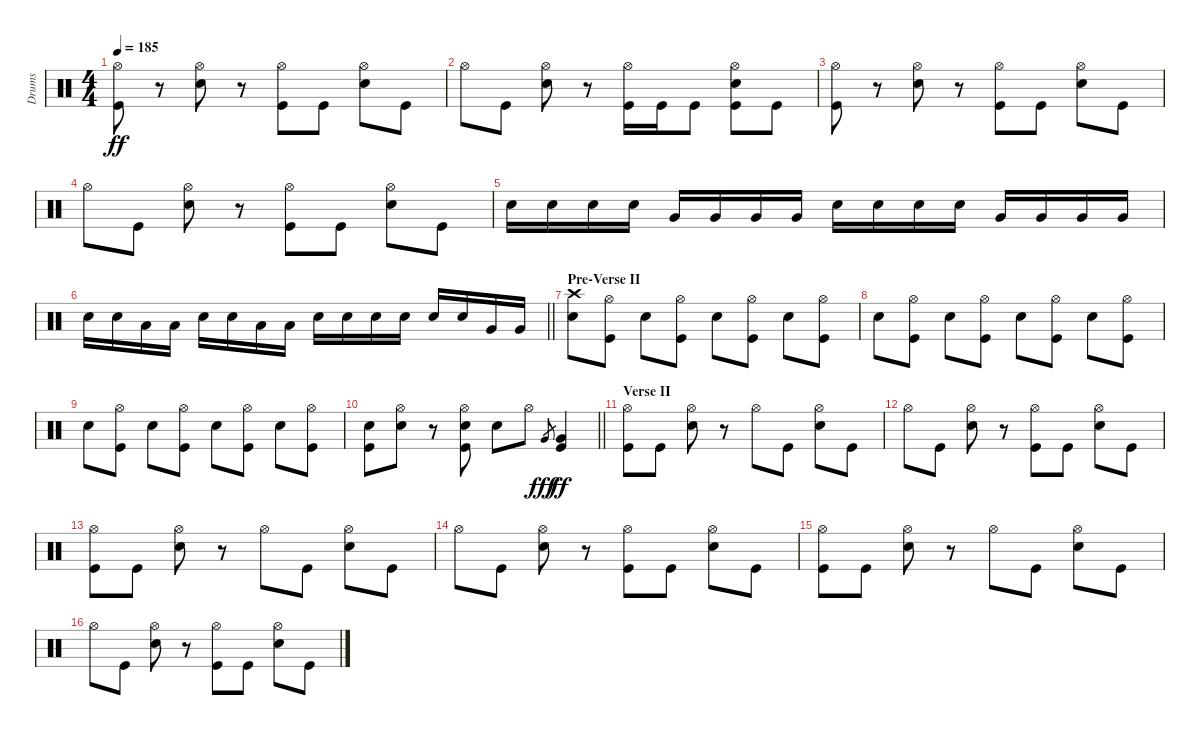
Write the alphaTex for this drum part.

\track ("Drums" "Drums") {instrument percussion}
\staff {score}
\articulation defaults
\ts (4 4)
\tempo 185
\clef neutral
\ks c
("Hi-Hat (open)" "Kick (hit)").8{dy ff} r.8 ("Hi-Hat (open)" "Electric Snare (hit)").8 r.8 ("Hi-Hat (open)" "Kick (hit)").8 "Kick (hit)".8 ("Hi-Hat (open)" "Electric Snare (hit)").8 "Kick (hit)".8 |
"Hi-Hat (open)".8 "Kick (hit)".8 ("Hi-Hat (open)" "Electric Snare (hit)").8 r.8 ("Hi-Hat (open)" "Kick (hit)").16 "Kick (hit)".16 "Kick (hit)".8 ("Hi-Hat (open)" "Electric Snare (hit)" "Kick (hit)").8 "Kick (hit)".8 |
("Hi-Hat (open)" "Kick (hit)").8 r.8 ("Hi-Hat (open)" "Electric Snare (hit)").8 r.8 ("Hi-Hat (open)" "Kick (hit)").8 "Kick (hit)".8 ("Hi-Hat (open)" "Electric Snare (hit)").8 "Kick (hit)".8 |
"Hi-Hat (open)".8 "Kick (hit)".8 ("Hi-Hat (open)" "Electric Snare (hit)").8 r.8 ("Hi-Hat (open)" "Kick (hit)").8 "Kick (hit)".8 ("Hi-Hat (open)" "Electric Snare (hit)").8 "Kick (hit)".8 |
"Electric Snare (hit)".16 "Electric Snare (hit)".16 "Electric Snare (hit)".16 "Electric Snare (hit)".16 "Very Low Tom (hit)".16 "Very Low Tom (hit)".16 "Very Low Tom (hit)".16 "Very Low Tom (hit)".16 "Electric Snare (hit)".16 "Electric Snare (hit)".16 "Electric Snare (hit)".16 "Electric Snare (hit)".16 "Very Low Tom (hit)".16 "Very Low Tom (hit)".16 "Very Low Tom (hit)".16 "Very Low Tom (hit)".16 |
\barLineRight lightlight "Electric Snare (hit)".16 "Electric Snare (hit)".16 "Low Tom (hit)".16 "Low Tom (hit)".16 "Electric Snare (hit)".16 "Electric Snare (hit)".16 "Low Tom (hit)".16 "Low Tom (hit)".16 "Electric Snare (hit)".16 "Electric Snare (hit)".16 "Electric Snare (hit)".16 "Electric Snare (hit)".16 "Electric Snare (hit)".16 "Electric Snare (hit)".16 "Very Low Tom (hit)".16 "Very Low Tom (hit)".16
|
\section ("" "Pre-Verse II")
("Crash high (hit)" "Electric Snare (hit)").8{volume 10} ("Hi-Hat (open)" "Kick (hit)").8 "Electric Snare (hit)".8 ("Hi-Hat (open)" "Kick (hit)").8 "Electric Snare (hit)".8 ("Hi-Hat (open)" "Kick (hit)").8 "Electric Snare (hit)".8 ("Hi-Hat (open)" "Kick (hit)").8 |
"Electric Snare (hit)".8 ("Hi-Hat (open)" "Kick (hit)").8 "Electric Snare (hit)".8 ("Hi-Hat (open)" "Kick (hit)").8 "Electric Snare (hit)".8 ("Hi-Hat (open)" "Kick (hit)").8 "Electric Snare (hit)".8 ("Hi-Hat (open)" "Kick (hit)").8 |
"Electric Snare (hit)".8 ("Hi-Hat (open)" "Kick (hit)").8 "Electric Snare (hit)".8 ("Hi-Hat (open)" "Kick (hit)").8 "Electric Snare (hit)".8 ("Hi-Hat (open)" "Kick (hit)").8 "Electric Snare (hit)".8 ("Hi-Hat (open)" "Kick (hit)").8 |
\barLineRight lightlight
("Electric Snare (hit)" "Kick (hit)").8 ("Hi-Hat (open)" "Electric Snare (hit)").8 r.8 ("Hi-Hat (open)" "Electric Snare (hit)" "Kick (hit)").8 "Electric Snare (hit)".8 "Hi-Hat (open)".8 "Very Low Tom (hit)".8{gr dy fff} ("Very Low Tom (hit)" "Kick (hit)").4{dy ff} |
\section ("" "Verse II")
("Hi-Hat (open)" "Kick (hit)").8 "Kick (hit)".8 ("Hi-Hat (open)" "Electric Snare (hit)").8 r.8 "Hi-Hat (open)".8 "Kick (hit)".8 ("Hi-Hat (open)" "Electric Snare (hit)").8 "Kick (hit)".8 |
"Hi-Hat (open)".8 "Kick (hit)".8 ("Hi-Hat (open)" "Electric Snare (hit)").8 r.8 ("Hi-Hat (open)" "Kick (hit)").8 "Kick (hit)".8 ("Hi-Hat (open)" "Electric Snare (hit)").8 "Kick (hit)".8 |
("Hi-Hat (open)" "Kick (hit)").8 "Kick (hit)".8 ("Hi-Hat (open)" "Electric Snare (hit)").8 r.8 "Hi-Hat (open)".8 "Kick (hit)".8 ("Hi-Hat (open)" "Electric Snare (hit)").8 "Kick (hit)".8 |
"Hi-Hat (open)".8 "Kick (hit)".8 ("Hi-Hat (open)" "Electric Snare (hit)").8 r.8 ("Hi-Hat (open)" "Kick (hit)").8 "Kick (hit)".8 ("Hi-Hat (open)" "Electric Snare (hit)").8 "Kick (hit)".8 |
("Hi-Hat (open)" "Kick (hit)").8 "Kick (hit)".8 ("Hi-Hat (open)" "Electric Snare (hit)").8 r.8 "Hi-Hat (open)".8 "Kick (hit)".8 ("Hi-Hat (open)" "Electric Snare (hit)").8 "Kick (hit)".8 |
"Hi-Hat (open)".8 "Kick (hit)".8 ("Hi-Hat (open)" "Electric Snare (hit)").8 r.8 ("Hi-Hat (open)" "Kick (hit)").8 "Kick (hit)".8 ("Hi-Hat (open)" "Electric Snare (hit)").8 "Kick (hit)".8
